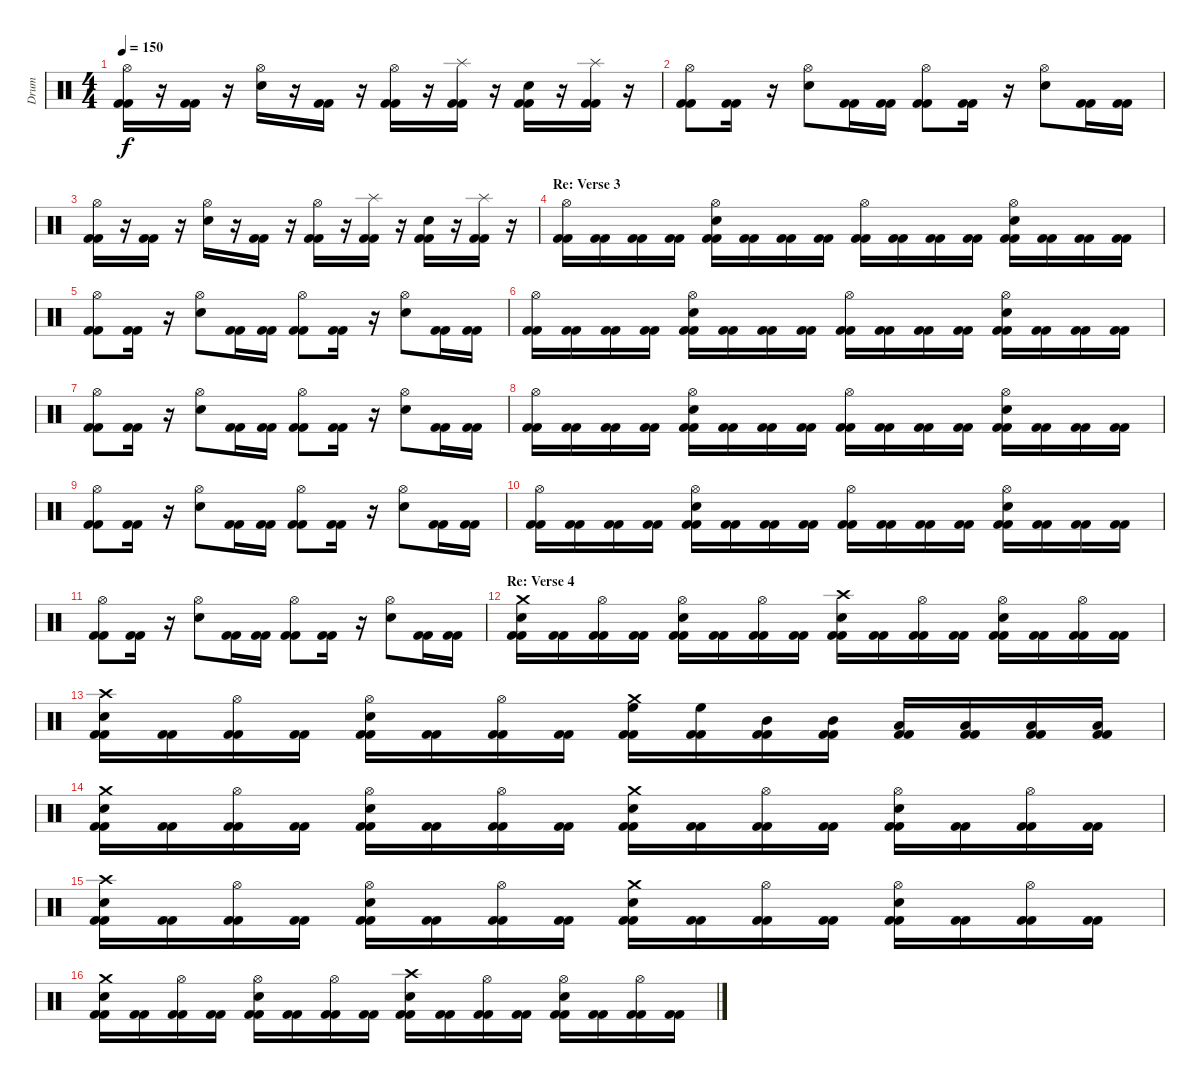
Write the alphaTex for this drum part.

\track ("Drum" "Drum") {instrument percussion}
\staff {score}
\articulation defaults
\ts (4 4)
\tempo 150
\clef neutral
\ks c
("Hi-Hat (open)" "Kick (hit) 2" "Kick (hit) 2").16{dy f} r.16 ("Kick (hit) 2" "Kick (hit) 2").16 r.16 ("Snare (hit) 2" "Hi-Hat (open)").16 r.16 ("Kick (hit) 2" "Kick (hit) 2").16 r.16 ("Hi-Hat (open)" "Kick (hit) 2" "Kick (hit) 2").16 r.16 ("Splash (hit)" "Kick (hit) 2" "Kick (hit) 2").16 r.16 ("Snare (hit) 2" "Kick (hit) 2" "Kick (hit) 2").16 r.16 ("Splash (hit)" "Kick (hit) 2" "Kick (hit) 2").16 r.16 |
("Hi-Hat (open)" "Kick (hit) 2" "Kick (hit) 2").8 ("Kick (hit) 2" "Kick (hit) 2").16 r.16 ("Snare (hit) 2" "Hi-Hat (open)").8 ("Kick (hit) 2" "Kick (hit) 2").16 ("Kick (hit) 2" "Kick (hit) 2").16 ("Hi-Hat (open)" "Kick (hit) 2" "Kick (hit) 2").8 ("Kick (hit) 2" "Kick (hit) 2").16 r.16 ("Snare (hit) 2" "Hi-Hat (open)").8 ("Kick (hit) 2" "Kick (hit) 2").16 ("Kick (hit) 2" "Kick (hit) 2").16 |
("Hi-Hat (open)" "Kick (hit) 2" "Kick (hit) 2").16 r.16 ("Kick (hit) 2" "Kick (hit) 2").16 r.16 ("Snare (hit) 2" "Hi-Hat (open)").16 r.16 ("Kick (hit) 2" "Kick (hit) 2").16 r.16 ("Hi-Hat (open)" "Kick (hit) 2" "Kick (hit) 2").16 r.16 ("Splash (hit)" "Kick (hit) 2" "Kick (hit) 2").16 r.16 ("Snare (hit) 2" "Kick (hit) 2" "Kick (hit) 2").16 r.16 ("Splash (hit)" "Kick (hit) 2" "Kick (hit) 2").16 r.16 |
\section ("" "Re: Verse 3")
("Hi-Hat (open)" "Kick (hit) 2" "Kick (hit) 2").16 ("Kick (hit) 2" "Kick (hit) 2").16 ("Kick (hit) 2" "Kick (hit) 2").16 ("Kick (hit) 2" "Kick (hit) 2").16 ("Snare (hit) 2" "Hi-Hat (open)" "Kick (hit) 2" "Kick (hit) 2").16 ("Kick (hit) 2" "Kick (hit) 2").16 ("Kick (hit) 2" "Kick (hit) 2").16 ("Kick (hit) 2" "Kick (hit) 2").16 ("Hi-Hat (open)" "Kick (hit) 2" "Kick (hit) 2").16 ("Kick (hit) 2" "Kick (hit) 2").16 ("Kick (hit) 2" "Kick (hit) 2").16 ("Kick (hit) 2" "Kick (hit) 2").16 ("Snare (hit) 2" "Hi-Hat (open)" "Kick (hit) 2" "Kick (hit) 2").16 ("Kick (hit) 2" "Kick (hit) 2").16 ("Kick (hit) 2" "Kick (hit) 2").16 ("Kick (hit) 2" "Kick (hit) 2").16 |
("Hi-Hat (open)" "Kick (hit) 2" "Kick (hit) 2").8 ("Kick (hit) 2" "Kick (hit) 2").16 r.16 ("Snare (hit) 2" "Hi-Hat (open)").8 ("Kick (hit) 2" "Kick (hit) 2").16 ("Kick (hit) 2" "Kick (hit) 2").16 ("Hi-Hat (open)" "Kick (hit) 2" "Kick (hit) 2").8 ("Kick (hit) 2" "Kick (hit) 2").16 r.16 ("Snare (hit) 2" "Hi-Hat (open)").8 ("Kick (hit) 2" "Kick (hit) 2").16 ("Kick (hit) 2" "Kick (hit) 2").16 |
("Hi-Hat (open)" "Kick (hit) 2" "Kick (hit) 2").16 ("Kick (hit) 2" "Kick (hit) 2").16 ("Kick (hit) 2" "Kick (hit) 2").16 ("Kick (hit) 2" "Kick (hit) 2").16 ("Snare (hit) 2" "Hi-Hat (open)" "Kick (hit) 2" "Kick (hit) 2").16 ("Kick (hit) 2" "Kick (hit) 2").16 ("Kick (hit) 2" "Kick (hit) 2").16 ("Kick (hit) 2" "Kick (hit) 2").16 ("Hi-Hat (open)" "Kick (hit) 2" "Kick (hit) 2").16 ("Kick (hit) 2" "Kick (hit) 2").16 ("Kick (hit) 2" "Kick (hit) 2").16 ("Kick (hit) 2" "Kick (hit) 2").16 ("Snare (hit) 2" "Hi-Hat (open)" "Kick (hit) 2" "Kick (hit) 2").16 ("Kick (hit) 2" "Kick (hit) 2").16 ("Kick (hit) 2" "Kick (hit) 2").16 ("Kick (hit) 2" "Kick (hit) 2").16 |
("Hi-Hat (open)" "Kick (hit) 2" "Kick (hit) 2").8 ("Kick (hit) 2" "Kick (hit) 2").16 r.16 ("Snare (hit) 2" "Hi-Hat (open)").8 ("Kick (hit) 2" "Kick (hit) 2").16 ("Kick (hit) 2" "Kick (hit) 2").16 ("Hi-Hat (open)" "Kick (hit) 2" "Kick (hit) 2").8 ("Kick (hit) 2" "Kick (hit) 2").16 r.16 ("Snare (hit) 2" "Hi-Hat (open)").8 ("Kick (hit) 2" "Kick (hit) 2").16 ("Kick (hit) 2" "Kick (hit) 2").16 |
("Hi-Hat (open)" "Kick (hit) 2" "Kick (hit) 2").16 ("Kick (hit) 2" "Kick (hit) 2").16 ("Kick (hit) 2" "Kick (hit) 2").16 ("Kick (hit) 2" "Kick (hit) 2").16 ("Snare (hit) 2" "Hi-Hat (open)" "Kick (hit) 2" "Kick (hit) 2").16 ("Kick (hit) 2" "Kick (hit) 2").16 ("Kick (hit) 2" "Kick (hit) 2").16 ("Kick (hit) 2" "Kick (hit) 2").16 ("Hi-Hat (open)" "Kick (hit) 2" "Kick (hit) 2").16 ("Kick (hit) 2" "Kick (hit) 2").16 ("Kick (hit) 2" "Kick (hit) 2").16 ("Kick (hit) 2" "Kick (hit) 2").16 ("Snare (hit) 2" "Hi-Hat (open)" "Kick (hit) 2" "Kick (hit) 2").16 ("Kick (hit) 2" "Kick (hit) 2").16 ("Kick (hit) 2" "Kick (hit) 2").16 ("Kick (hit) 2" "Kick (hit) 2").16 |
("Hi-Hat (open)" "Kick (hit) 2" "Kick (hit) 2").8 ("Kick (hit) 2" "Kick (hit) 2").16 r.16 ("Snare (hit) 2" "Hi-Hat (open)").8 ("Kick (hit) 2" "Kick (hit) 2").16 ("Kick (hit) 2" "Kick (hit) 2").16 ("Hi-Hat (open)" "Kick (hit) 2" "Kick (hit) 2").8 ("Kick (hit) 2" "Kick (hit) 2").16 r.16 ("Snare (hit) 2" "Hi-Hat (open)").8 ("Kick (hit) 2" "Kick (hit) 2").16 ("Kick (hit) 2" "Kick (hit) 2").16 |
("Hi-Hat (open)" "Kick (hit) 2" "Kick (hit) 2").16 ("Kick (hit) 2" "Kick (hit) 2").16 ("Kick (hit) 2" "Kick (hit) 2").16 ("Kick (hit) 2" "Kick (hit) 2").16 ("Snare (hit) 2" "Hi-Hat (open)" "Kick (hit) 2" "Kick (hit) 2").16 ("Kick (hit) 2" "Kick (hit) 2").16 ("Kick (hit) 2" "Kick (hit) 2").16 ("Kick (hit) 2" "Kick (hit) 2").16 ("Hi-Hat (open)" "Kick (hit) 2" "Kick (hit) 2").16 ("Kick (hit) 2" "Kick (hit) 2").16 ("Kick (hit) 2" "Kick (hit) 2").16 ("Kick (hit) 2" "Kick (hit) 2").16 ("Snare (hit) 2" "Hi-Hat (open)" "Kick (hit) 2" "Kick (hit) 2").16 ("Kick (hit) 2" "Kick (hit) 2").16 ("Kick (hit) 2" "Kick (hit) 2").16 ("Kick (hit) 2" "Kick (hit) 2").16 |
("Hi-Hat (open)" "Kick (hit) 2" "Kick (hit) 2").8 ("Kick (hit) 2" "Kick (hit) 2").16 r.16 ("Snare (hit) 2" "Hi-Hat (open)").8 ("Kick (hit) 2" "Kick (hit) 2").16 ("Kick (hit) 2" "Kick (hit) 2").16 ("Hi-Hat (open)" "Kick (hit) 2" "Kick (hit) 2").8 ("Kick (hit) 2" "Kick (hit) 2").16 r.16 ("Snare (hit) 2" "Hi-Hat (open)").8 ("Kick (hit) 2" "Kick (hit) 2").16 ("Kick (hit) 2" "Kick (hit) 2").16 |
\section ("" "Re: Verse 4")
("Snare (hit) 2" "Crash medium (hit)" "Kick (hit) 2" "Kick (hit) 2").16 ("Kick (hit) 2" "Kick (hit) 2").16 ("Hi-Hat (open)" "Kick (hit) 2" "Kick (hit) 2").16 ("Kick (hit) 2" "Kick (hit) 2").16 ("Snare (hit) 2" "Hi-Hat (open)" "Kick (hit) 2" "Kick (hit) 2").16 ("Kick (hit) 2" "Kick (hit) 2").16 ("Hi-Hat (open)" "Kick (hit) 2" "Kick (hit) 2").16 ("Kick (hit) 2" "Kick (hit) 2").16 ("Snare (hit) 2" "Crash high (hit)" "Kick (hit) 2" "Kick (hit) 2").16 ("Kick (hit) 2" "Kick (hit) 2").16 ("Hi-Hat (open)" "Kick (hit) 2" "Kick (hit) 2").16 ("Kick (hit) 2" "Kick (hit) 2").16 ("Snare (hit) 2" "Hi-Hat (open)" "Kick (hit) 2" "Kick (hit) 2").16 ("Kick (hit) 2" "Kick (hit) 2").16 ("Hi-Hat (open)" "Kick (hit) 2" "Kick (hit) 2").16 ("Kick (hit) 2" "Kick (hit) 2").16 |
("Snare (hit) 2" "Crash high (hit)" "Kick (hit) 2" "Kick (hit) 2").16 ("Kick (hit) 2" "Kick (hit) 2").16 ("Hi-Hat (open)" "Kick (hit) 2" "Kick (hit) 2").16 ("Kick (hit) 2" "Kick (hit) 2").16 ("Snare (hit) 2" "Hi-Hat (open)" "Kick (hit) 2" "Kick (hit) 2").16 ("Kick (hit) 2" "Kick (hit) 2").16 ("Hi-Hat (open)" "Kick (hit) 2" "Kick (hit) 2").16 ("Kick (hit) 2" "Kick (hit) 2").16 ("High Floor Tom (hit)" "Crash medium (hit)" "Kick (hit) 2" "Kick (hit) 2").16 ("High Floor Tom (hit)" "Kick (hit) 2" "Kick (hit) 2").16 ("Mid Tom (hit)" "Kick (hit) 2" "Kick (hit) 2").16 ("Mid Tom (hit)" "Kick (hit) 2" "Kick (hit) 2").16 ("Low Tom (hit)" "Kick (hit) 2" "Kick (hit) 2").16 ("Low Tom (hit)" "Kick (hit) 2" "Kick (hit) 2").16 ("Low Floor Tom (hit)" "Kick (hit) 2" "Kick (hit) 2").16 ("Low Floor Tom (hit)" "Kick (hit) 2" "Kick (hit) 2").16 |
("Snare (hit) 2" "Crash medium (hit)" "Kick (hit) 2" "Kick (hit) 2").16 ("Kick (hit) 2" "Kick (hit) 2").16 ("Hi-Hat (open)" "Kick (hit) 2" "Kick (hit) 2").16 ("Kick (hit) 2" "Kick (hit) 2").16 ("Snare (hit) 2" "Hi-Hat (open)" "Kick (hit) 2" "Kick (hit) 2").16 ("Kick (hit) 2" "Kick (hit) 2").16 ("Hi-Hat (open)" "Kick (hit) 2" "Kick (hit) 2").16 ("Kick (hit) 2" "Kick (hit) 2").16 ("Snare (hit) 2" "Crash medium (hit)" "Kick (hit) 2" "Kick (hit) 2").16 ("Kick (hit) 2" "Kick (hit) 2").16 ("Hi-Hat (open)" "Kick (hit) 2" "Kick (hit) 2").16 ("Kick (hit) 2" "Kick (hit) 2").16 ("Snare (hit) 2" "Hi-Hat (open)" "Kick (hit) 2" "Kick (hit) 2").16 ("Kick (hit) 2" "Kick (hit) 2").16 ("Hi-Hat (open)" "Kick (hit) 2" "Kick (hit) 2").16 ("Kick (hit) 2" "Kick (hit) 2").16 |
("Snare (hit) 2" "Crash high (hit)" "Kick (hit) 2" "Kick (hit) 2").16 ("Kick (hit) 2" "Kick (hit) 2").16 ("Hi-Hat (open)" "Kick (hit) 2" "Kick (hit) 2").16 ("Kick (hit) 2" "Kick (hit) 2").16 ("Snare (hit) 2" "Hi-Hat (open)" "Kick (hit) 2" "Kick (hit) 2").16 ("Kick (hit) 2" "Kick (hit) 2").16 ("Hi-Hat (open)" "Kick (hit) 2" "Kick (hit) 2").16 ("Kick (hit) 2" "Kick (hit) 2").16 ("Snare (hit) 2" "Crash medium (hit)" "Kick (hit) 2" "Kick (hit) 2").16 ("Kick (hit) 2" "Kick (hit) 2").16 ("Hi-Hat (open)" "Kick (hit) 2" "Kick (hit) 2").16 ("Kick (hit) 2" "Kick (hit) 2").16 ("Snare (hit) 2" "Hi-Hat (open)" "Kick (hit) 2" "Kick (hit) 2").16 ("Kick (hit) 2" "Kick (hit) 2").16 ("Hi-Hat (open)" "Kick (hit) 2" "Kick (hit) 2").16 ("Kick (hit) 2" "Kick (hit) 2").16 |
("Snare (hit) 2" "Crash medium (hit)" "Kick (hit) 2" "Kick (hit) 2").16 ("Kick (hit) 2" "Kick (hit) 2").16 ("Hi-Hat (open)" "Kick (hit) 2" "Kick (hit) 2").16 ("Kick (hit) 2" "Kick (hit) 2").16 ("Snare (hit) 2" "Hi-Hat (open)" "Kick (hit) 2" "Kick (hit) 2").16 ("Kick (hit) 2" "Kick (hit) 2").16 ("Hi-Hat (open)" "Kick (hit) 2" "Kick (hit) 2").16 ("Kick (hit) 2" "Kick (hit) 2").16 ("Snare (hit) 2" "Crash high (hit)" "Kick (hit) 2" "Kick (hit) 2").16 ("Kick (hit) 2" "Kick (hit) 2").16 ("Hi-Hat (open)" "Kick (hit) 2" "Kick (hit) 2").16 ("Kick (hit) 2" "Kick (hit) 2").16 ("Snare (hit) 2" "Hi-Hat (open)" "Kick (hit) 2" "Kick (hit) 2").16 ("Kick (hit) 2" "Kick (hit) 2").16 ("Hi-Hat (open)" "Kick (hit) 2" "Kick (hit) 2").16 ("Kick (hit) 2" "Kick (hit) 2").16
